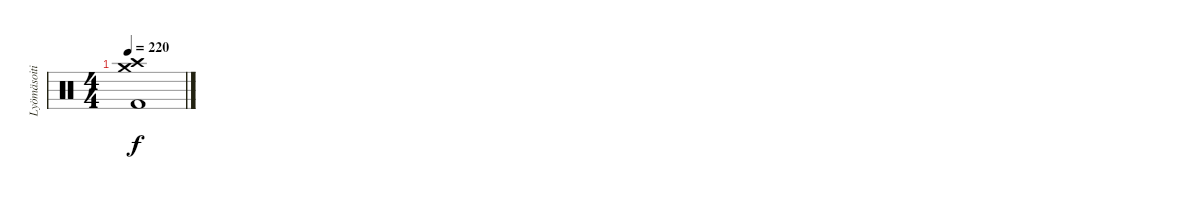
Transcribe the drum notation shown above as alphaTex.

\track ("Lyömäsoitin" "Lyömäsoiti") {instrument percussion}
\staff {score}
\articulation defaults
\ts (4 4)
\tempo 220
\clef neutral
\ks c
("Crash medium (hit)" "Crash high (hit)" "Kick (hit) 2").1{dy f}
